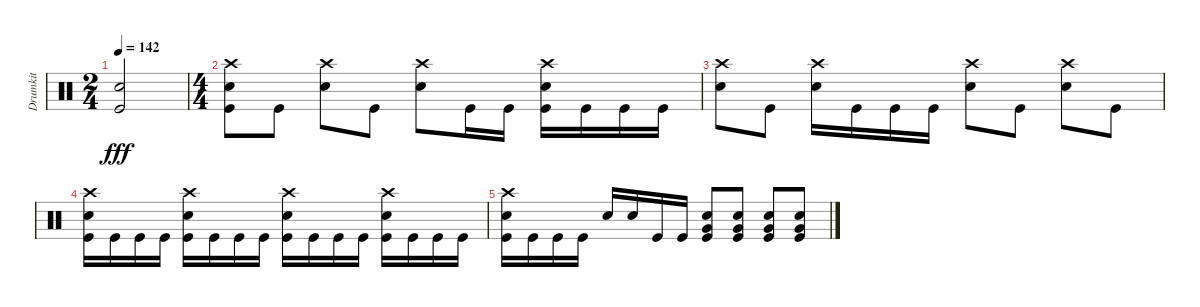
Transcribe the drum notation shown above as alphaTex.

\track ("Drumkit" "Drumkit") {instrument percussion}
\staff {score}
\articulation defaults
\ts (2 4)
\tempo 142
\clef neutral
\ks c
("Snare (hit) 2" "Kick (hit)").2{dy fff} |
\ts (4 4)
("Snare (hit) 2" "Crash high (hit)" "Kick (hit)").8 "Kick (hit)".8 ("Snare (hit) 2" "Crash high (hit)").8 "Kick (hit)".8 ("Crash high (hit)" "Snare (hit) 2").8 "Kick (hit)".16 "Kick (hit)".16 ("Snare (hit) 2" "Crash high (hit)" "Kick (hit)").16 "Kick (hit)".16 "Kick (hit)".16 "Kick (hit)".16 |
("Snare (hit) 2" "Crash high (hit)").8 "Kick (hit)".8 ("Snare (hit) 2" "Crash high (hit)").16 "Kick (hit)".16 "Kick (hit)".16 "Kick (hit)".16 ("Snare (hit) 2" "Crash high (hit)").8 "Kick (hit)".8 ("Snare (hit) 2" "Crash high (hit)").8 "Kick (hit)".8 |
("Snare (hit) 2" "Kick (hit)" "Crash high (hit)").16 "Kick (hit)".16 "Kick (hit)".16 "Kick (hit)".16 ("Snare (hit) 2" "Kick (hit)" "Crash high (hit)").16 "Kick (hit)".16 "Kick (hit)".16 "Kick (hit)".16 ("Snare (hit) 2" "Kick (hit)" "Crash high (hit)").16 "Kick (hit)".16 "Kick (hit)".16 "Kick (hit)".16 ("Snare (hit) 2" "Kick (hit)" "Crash high (hit)").16 "Kick (hit)".16 "Kick (hit)".16 "Kick (hit)".16 |
("Snare (hit) 2" "Kick (hit)" "Crash high (hit)").16 "Kick (hit)".16 "Kick (hit)".16 "Kick (hit)".16 "Snare (hit) 2".16 "Snare (hit) 2".16 "Kick (hit)".16 "Kick (hit)".16 ("Kick (hit)" "Very Low Tom (hit)" "Snare (hit) 2").8 ("Kick (hit)" "Very Low Tom (hit)" "Snare (hit) 2").8 ("Kick (hit)" "Very Low Tom (hit)" "Snare (hit) 2").8 ("Kick (hit)" "Very Low Tom (hit)" "Snare (hit) 2").8
